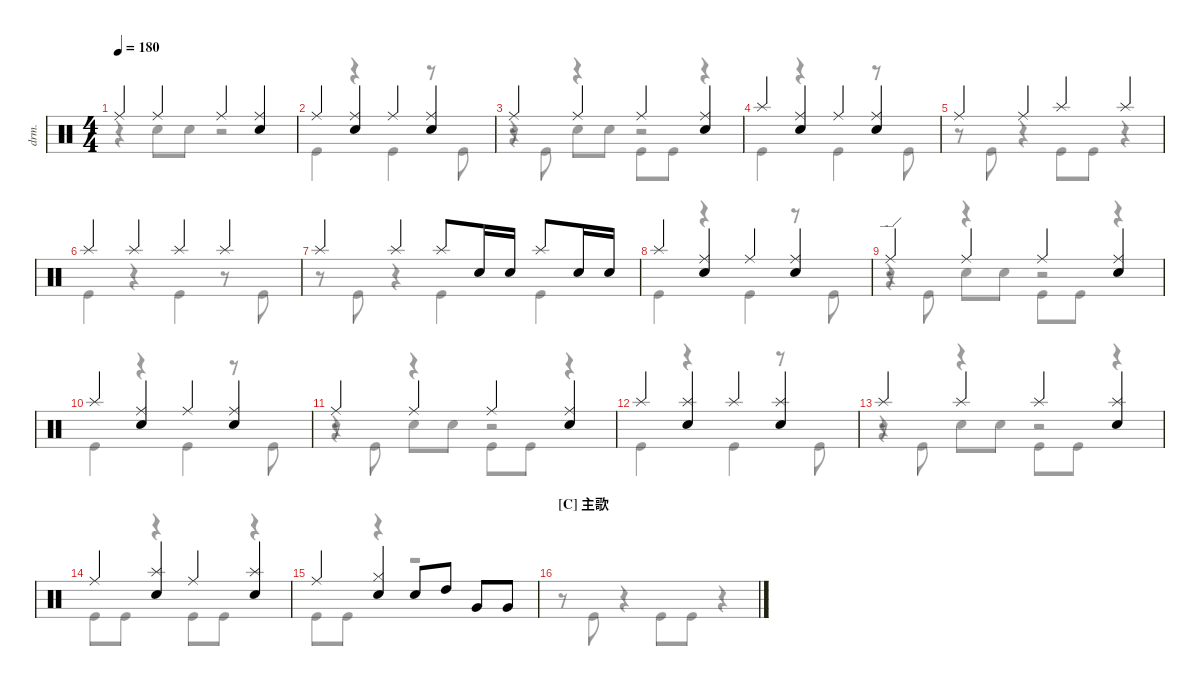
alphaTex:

\defaultSystemsLayout 4
\hideDynamics
\bracketExtendMode nobrackets
\otherSystemsTrackNameOrientation horizontal
\track ("Drumkit" "drm.") {instrument percussion}
\staff {score}
\articulation defaults
\voice
\ts (4 4)
\tempo 180
\clef neutral
\ks c "Ride (middle)".4{dy mf} "Ride (middle)".4 "Ride (middle)".4
("Snare (hit) 2" "Ride (middle)").4 |
"Ride (middle)".4 ("Snare (hit) 2" "Ride (middle)").4 "Ride (middle)".4 ("Snare (hit) 2" "Ride (middle)").4 |
"Ride (middle)".4 "Ride (middle)".4 "Ride (middle)".4 ("Snare (hit) 2" "Ride (middle)").4 |
"Splash (hit)".4 ("Snare (hit) 2" "Ride (middle)").4 "Ride (middle)".4 ("Snare (hit) 2" "Ride (middle)").4 |
"Ride (middle)".4 "Ride (middle)".4 "Splash (hit)".4 "Splash (hit)".4 |
"Splash (hit)".4 "Splash (hit)".4 "Splash (hit)".4 "Splash (hit)".4 |
"Splash (hit)".4 "Splash (hit)".4 "Splash (hit)".8 "Snare (hit) 2".16 "Snare (hit) 2".16 "Splash (hit)".8 "Snare (hit) 2".16 "Snare (hit) 2".16 |
"Splash (hit)".4 ("Snare (hit) 2" "Ride (middle)").4 "Ride (middle)".4 ("Snare (hit) 2" "Ride (middle)").4 |
"Ride (edge)".4 "Ride (middle)".4 "Ride (middle)".4 ("Snare (hit) 2" "Ride (middle)").4 |
"Splash (hit)".4 ("Snare (hit) 2" "Ride (middle)").4 "Ride (middle)".4 ("Snare (hit) 2" "Ride (middle)").4 |
"Ride (middle)".4 "Ride (middle)".4 "Ride (middle)".4 ("Snare (hit) 2" "Ride (middle)").4 |
"Splash (hit)".4 ("Snare (hit) 2" "Splash (hit)").4 "Splash (hit)".4 ("Snare (hit) 2" "Splash (hit)").4 |
"Splash (hit)".4 "Splash (hit)".4 "Splash (hit)".4 ("Snare (hit) 2" "Splash (hit)").4 |
"Ride (middle)".4 ("Splash (hit)" "Snare (hit) 2").4 "Ride (middle)".4 ("Splash (hit)" "Snare (hit) 2").4 |
"Ride (middle)".4 ("Hi-Hat (closed)" "Snare (hit) 2").4 "Snare (hit) 2".8 "High Tom (hit)".8 "Very Low Tom (hit)".8 "Very Low Tom (hit)".8 |
\section ("C" "主歌")
\voice
\clef neutral
\ottava regular
\simile none
\ks c
r.8{dy mf} "Kick (hit)".8 r.4 "Kick (hit)".8 "Kick (hit)".8 r.4 |
"Kick (hit)".4 r.4 "Kick (hit)".4 r.8 "Kick (hit)".8 |
r.8 "Kick (hit)".8 r.4 "Kick (hit)".8 "Kick (hit)".8 r.4 |
"Kick (hit)".4 r.4 "Kick (hit)".4 r.8 "Kick (hit)".8 |
r.8 "Kick (hit)".8 r.4 "Kick (hit)".8 "Kick (hit)".8 r.4 |
"Kick (hit)".4 r.4 "Kick (hit)".4 r.8 "Kick (hit)".8 |
r.8 "Kick (hit)".8 r.4 "Kick (hit)".4 "Kick (hit)".4 |
"Kick (hit)".4 r.4 "Kick (hit)".4 r.8 "Kick (hit)".8 |
r.8 "Kick (hit)".8 r.4 "Kick (hit)".8 "Kick (hit)".8 r.4 |
"Kick (hit)".4 r.4 "Kick (hit)".4 r.8 "Kick (hit)".8 |
r.8 "Kick (hit)".8 r.4 "Kick (hit)".8 "Kick (hit)".8 r.4 |
"Kick (hit)".4 r.4 "Kick (hit)".4 r.8 "Kick (hit)".8 |
r.8 "Kick (hit)".8 r.4 "Kick (hit)".8 "Kick (hit)".8 r.4 |
"Kick (hit)".8 "Kick (hit)".8 r.4 "Kick (hit)".8 "Kick (hit)".8 r.4 |
"Kick (hit)".8 "Kick (hit)".8 r.4 r.2 |
\voice
\clef neutral
\ottava regular
\simile none
\ks c
r.4{dy mf} "Snare (hit) 2".8 "Snare (hit) 2".8 r.2 |
|
r.4 "Snare (hit) 2".8 "Snare (hit) 2".8 r.2 |
|
|
|
|
|
r.4 "Snare (hit) 2".8 "Snare (hit) 2".8 r.2 |
|
r.4 "Snare (hit) 2".8 "Snare (hit) 2".8 r.2 |
|
r.4 "Snare (hit) 2".8 "Snare (hit) 2".8 r.2 |
|
|
